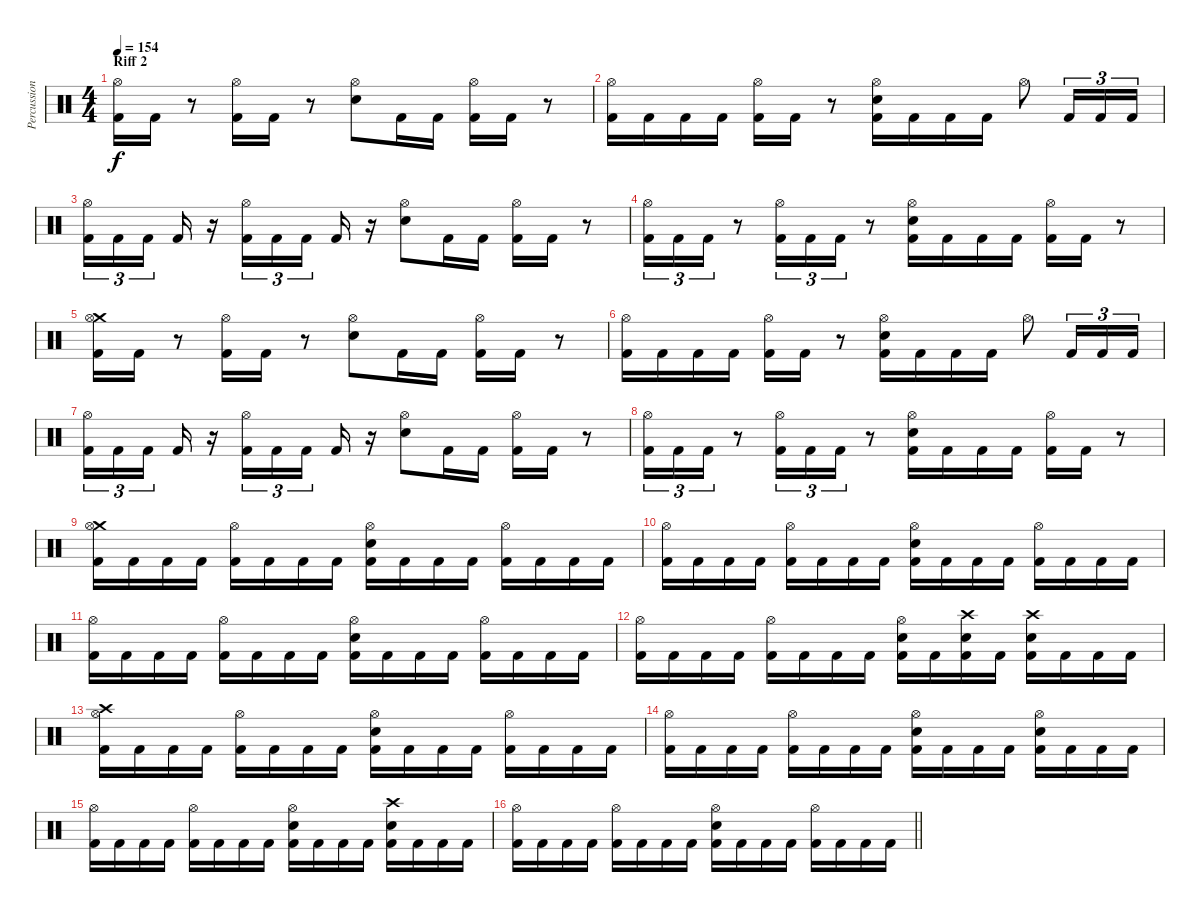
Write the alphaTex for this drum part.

\track ("Percussion" "Percussion") {instrument percussion}
\staff {score}
\articulation defaults
\ts (4 4)
\section ("" "Riff 2")
\tempo 154
\clef neutral
\ks c
("Hi-Hat (open)" "Kick (hit) 2").16{dy f} "Kick (hit) 2".16 r.8 ("Hi-Hat (open)" "Kick (hit) 2").16 "Kick (hit) 2".16 r.8 ("Hi-Hat (open)" "Electric Snare (hit)").8 "Kick (hit) 2".16 "Kick (hit) 2".16 ("Hi-Hat (open)" "Kick (hit) 2").16 "Kick (hit) 2".16 r.8 |
("Hi-Hat (open)" "Kick (hit) 2").16 "Kick (hit) 2".16 "Kick (hit) 2".16 "Kick (hit) 2".16 ("Hi-Hat (open)" "Kick (hit) 2").16 "Kick (hit) 2".16 r.8 ("Hi-Hat (open)" "Electric Snare (hit)" "Kick (hit) 2").16 "Kick (hit) 2".16 "Kick (hit) 2".16 "Kick (hit) 2".16 "Hi-Hat (open)".8 "Kick (hit) 2".16{tu (3 2)} "Kick (hit) 2".16{tu (3 2)} "Kick (hit) 2".16{tu (3 2)} |
("Hi-Hat (open)" "Kick (hit) 2").16{tu (3 2)} "Kick (hit) 2".16{tu (3 2)} "Kick (hit) 2".16{tu (3 2) beam splitsecondary} "Kick (hit) 2".16 r.16 ("Hi-Hat (open)" "Kick (hit) 2").16{tu (3 2)} "Kick (hit) 2".16{tu (3 2)} "Kick (hit) 2".16{tu (3 2) beam splitsecondary} "Kick (hit) 2".16 r.16 ("Hi-Hat (open)" "Electric Snare (hit)").8 "Kick (hit) 2".16 "Kick (hit) 2".16 ("Hi-Hat (open)" "Kick (hit) 2").16 "Kick (hit) 2".16 r.8 |
("Hi-Hat (open)" "Kick (hit) 2").16{tu (3 2)} "Kick (hit) 2".16{tu (3 2)} "Kick (hit) 2".16{tu (3 2)} r.8 ("Hi-Hat (open)" "Kick (hit) 2").16{tu (3 2)} "Kick (hit) 2".16{tu (3 2)} "Kick (hit) 2".16{tu (3 2)} r.8 ("Hi-Hat (open)" "Electric Snare (hit)" "Kick (hit) 2").16 "Kick (hit) 2".16 "Kick (hit) 2".16 "Kick (hit) 2".16 ("Hi-Hat (open)" "Kick (hit) 2").16 "Kick (hit) 2".16 r.8 |
("Crash medium (hit)" "Hi-Hat (open)" "Kick (hit) 2").16 "Kick (hit) 2".16 r.8 ("Hi-Hat (open)" "Kick (hit) 2").16 "Kick (hit) 2".16 r.8 ("Hi-Hat (open)" "Electric Snare (hit)").8 "Kick (hit) 2".16 "Kick (hit) 2".16 ("Hi-Hat (open)" "Kick (hit) 2").16 "Kick (hit) 2".16 r.8 |
("Hi-Hat (open)" "Kick (hit) 2").16 "Kick (hit) 2".16 "Kick (hit) 2".16 "Kick (hit) 2".16 ("Hi-Hat (open)" "Kick (hit) 2").16 "Kick (hit) 2".16 r.8 ("Hi-Hat (open)" "Electric Snare (hit)" "Kick (hit) 2").16 "Kick (hit) 2".16 "Kick (hit) 2".16 "Kick (hit) 2".16 "Hi-Hat (open)".8 "Kick (hit) 2".16{tu (3 2)} "Kick (hit) 2".16{tu (3 2)} "Kick (hit) 2".16{tu (3 2)} |
("Hi-Hat (open)" "Kick (hit) 2").16{tu (3 2)} "Kick (hit) 2".16{tu (3 2)} "Kick (hit) 2".16{tu (3 2) beam splitsecondary} "Kick (hit) 2".16 r.16 ("Hi-Hat (open)" "Kick (hit) 2").16{tu (3 2)} "Kick (hit) 2".16{tu (3 2)} "Kick (hit) 2".16{tu (3 2) beam splitsecondary} "Kick (hit) 2".16 r.16 ("Hi-Hat (open)" "Electric Snare (hit)").8 "Kick (hit) 2".16 "Kick (hit) 2".16 ("Hi-Hat (open)" "Kick (hit) 2").16 "Kick (hit) 2".16 r.8 |
("Hi-Hat (open)" "Kick (hit) 2").16{tu (3 2)} "Kick (hit) 2".16{tu (3 2)} "Kick (hit) 2".16{tu (3 2)} r.8 ("Hi-Hat (open)" "Kick (hit) 2").16{tu (3 2)} "Kick (hit) 2".16{tu (3 2)} "Kick (hit) 2".16{tu (3 2)} r.8 ("Hi-Hat (open)" "Electric Snare (hit)" "Kick (hit) 2").16 "Kick (hit) 2".16 "Kick (hit) 2".16 "Kick (hit) 2".16 ("Hi-Hat (open)" "Kick (hit) 2").16 "Kick (hit) 2".16 r.8 |
("Crash medium (hit)" "Hi-Hat (open)" "Kick (hit) 2").16 "Kick (hit) 2".16 "Kick (hit) 2".16 "Kick (hit) 2".16 ("Hi-Hat (open)" "Kick (hit) 2").16 "Kick (hit) 2".16 "Kick (hit) 2".16 "Kick (hit) 2".16 ("Hi-Hat (open)" "Electric Snare (hit)" "Kick (hit) 2").16 "Kick (hit) 2".16 "Kick (hit) 2".16 "Kick (hit) 2".16 ("Hi-Hat (open)" "Kick (hit) 2").16 "Kick (hit) 2".16 "Kick (hit) 2".16 "Kick (hit) 2".16 |
("Hi-Hat (open)" "Kick (hit) 2").16 "Kick (hit) 2".16 "Kick (hit) 2".16 "Kick (hit) 2".16 ("Hi-Hat (open)" "Kick (hit) 2").16 "Kick (hit) 2".16 "Kick (hit) 2".16 "Kick (hit) 2".16 ("Hi-Hat (open)" "Electric Snare (hit)" "Kick (hit) 2").16 "Kick (hit) 2".16 "Kick (hit) 2".16 "Kick (hit) 2".16 ("Hi-Hat (open)" "Kick (hit) 2").16 "Kick (hit) 2".16 "Kick (hit) 2".16 "Kick (hit) 2".16 |
("Hi-Hat (open)" "Kick (hit) 2").16 "Kick (hit) 2".16 "Kick (hit) 2".16 "Kick (hit) 2".16 ("Hi-Hat (open)" "Kick (hit) 2").16 "Kick (hit) 2".16 "Kick (hit) 2".16 "Kick (hit) 2".16 ("Hi-Hat (open)" "Electric Snare (hit)" "Kick (hit) 2").16 "Kick (hit) 2".16 "Kick (hit) 2".16 "Kick (hit) 2".16 ("Hi-Hat (open)" "Kick (hit) 2").16 "Kick (hit) 2".16 "Kick (hit) 2".16 "Kick (hit) 2".16 |
("Hi-Hat (open)" "Kick (hit) 2").16 "Kick (hit) 2".16 "Kick (hit) 2".16 "Kick (hit) 2".16 ("Hi-Hat (open)" "Kick (hit) 2").16 "Kick (hit) 2".16 "Kick (hit) 2".16 "Kick (hit) 2".16 ("Hi-Hat (open)" "Electric Snare (hit)" "Kick (hit) 2").16 "Kick (hit) 2".16 ("Crash high (hit)" "Electric Snare (hit)" "Kick (hit) 2").16 "Kick (hit) 2".16 ("Crash high (hit)" "Electric Snare (hit)" "Kick (hit) 2").16 "Kick (hit) 2".16 "Kick (hit) 2".16 "Kick (hit) 2".16 |
("Crash high (hit)" "Hi-Hat (open)" "Kick (hit) 2").16 "Kick (hit) 2".16 "Kick (hit) 2".16 "Kick (hit) 2".16 ("Hi-Hat (open)" "Kick (hit) 2").16 "Kick (hit) 2".16 "Kick (hit) 2".16 "Kick (hit) 2".16 ("Hi-Hat (open)" "Electric Snare (hit)" "Kick (hit) 2").16 "Kick (hit) 2".16 "Kick (hit) 2".16 "Kick (hit) 2".16 ("Hi-Hat (open)" "Kick (hit) 2").16 "Kick (hit) 2".16 "Kick (hit) 2".16 "Kick (hit) 2".16 |
("Hi-Hat (open)" "Kick (hit) 2").16 "Kick (hit) 2".16 "Kick (hit) 2".16 "Kick (hit) 2".16 ("Hi-Hat (open)" "Kick (hit) 2").16 "Kick (hit) 2".16 "Kick (hit) 2".16 "Kick (hit) 2".16 ("Hi-Hat (open)" "Electric Snare (hit)" "Kick (hit) 2").16 "Kick (hit) 2".16 "Kick (hit) 2".16 "Kick (hit) 2".16 ("Hi-Hat (open)" "Electric Snare (hit)" "Kick (hit) 2").16 "Kick (hit) 2".16 "Kick (hit) 2".16 "Kick (hit) 2".16 |
("Hi-Hat (open)" "Kick (hit) 2").16 "Kick (hit) 2".16 "Kick (hit) 2".16 "Kick (hit) 2".16 ("Hi-Hat (open)" "Kick (hit) 2").16 "Kick (hit) 2".16 "Kick (hit) 2".16 "Kick (hit) 2".16 ("Hi-Hat (open)" "Electric Snare (hit)" "Kick (hit) 2").16 "Kick (hit) 2".16 "Kick (hit) 2".16 "Kick (hit) 2".16 ("Crash high (hit)" "Electric Snare (hit)" "Kick (hit) 2").16 "Kick (hit) 2".16 "Kick (hit) 2".16 "Kick (hit) 2".16 |
\barLineRight lightlight
("Hi-Hat (open)" "Kick (hit) 2").16 "Kick (hit) 2".16 "Kick (hit) 2".16 "Kick (hit) 2".16 ("Hi-Hat (open)" "Kick (hit) 2").16 "Kick (hit) 2".16 "Kick (hit) 2".16 "Kick (hit) 2".16 ("Hi-Hat (open)" "Electric Snare (hit)" "Kick (hit) 2").16 "Kick (hit) 2".16 "Kick (hit) 2".16 "Kick (hit) 2".16 ("Hi-Hat (open)" "Kick (hit) 2").16 "Kick (hit) 2".16 "Kick (hit) 2".16 "Kick (hit) 2".16
